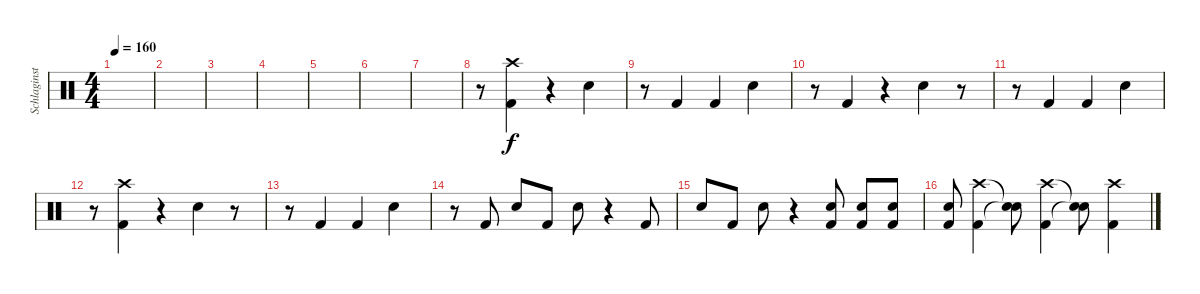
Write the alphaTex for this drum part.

\track ("Schlaginstrumente - Auswahl" "Schlaginst") {instrument percussion}
\staff {score}
\articulation defaults
\ts (4 4)
\tempo 160
\clef neutral
\ks c
|
|
|
|
|
|
|
r.8 ("Crash high (hit)" "Kick (hit) 2").4 r.4 "Electric Snare (hit)".4 |
r.8 "Kick (hit) 2".4 "Kick (hit) 2".4 "Electric Snare (hit)".4 |
r.8 "Kick (hit) 2".4 r.4 "Electric Snare (hit)".4 r.8 |
r.8 "Kick (hit) 2".4 "Kick (hit) 2".4 "Electric Snare (hit)".4 |
r.8 ("Crash high (hit)" "Kick (hit) 2").4 r.4 "Electric Snare (hit)".4 r.8 |
r.8 "Kick (hit) 2".4 "Kick (hit) 2".4 "Electric Snare (hit)".4 |
r.8 "Kick (hit) 2".8 "Electric Snare (hit)".8 "Kick (hit) 2".8 "Electric Snare (hit)".8 r.4 "Kick (hit) 2".8 |
"Electric Snare (hit)".8 "Kick (hit) 2".8 "Electric Snare (hit)".8 r.4 ("Electric Snare (hit)" "Kick (hit) 2").8 ("Electric Snare (hit)" "Kick (hit) 2").8 ("Electric Snare (hit)" "Kick (hit) 2").8 |
("Electric Snare (hit)" "Kick (hit) 2").8 ("Crash high (hit)" "Kick (hit) 2").4 ("Snare (hit)"{t} "Snare (hit)"{t}).8 ("Crash high (hit)" "Kick (hit) 2").4 ("Snare (hit)"{t} "Snare (hit)"{t}).8 ("Crash high (hit)" "Kick (hit) 2").4
